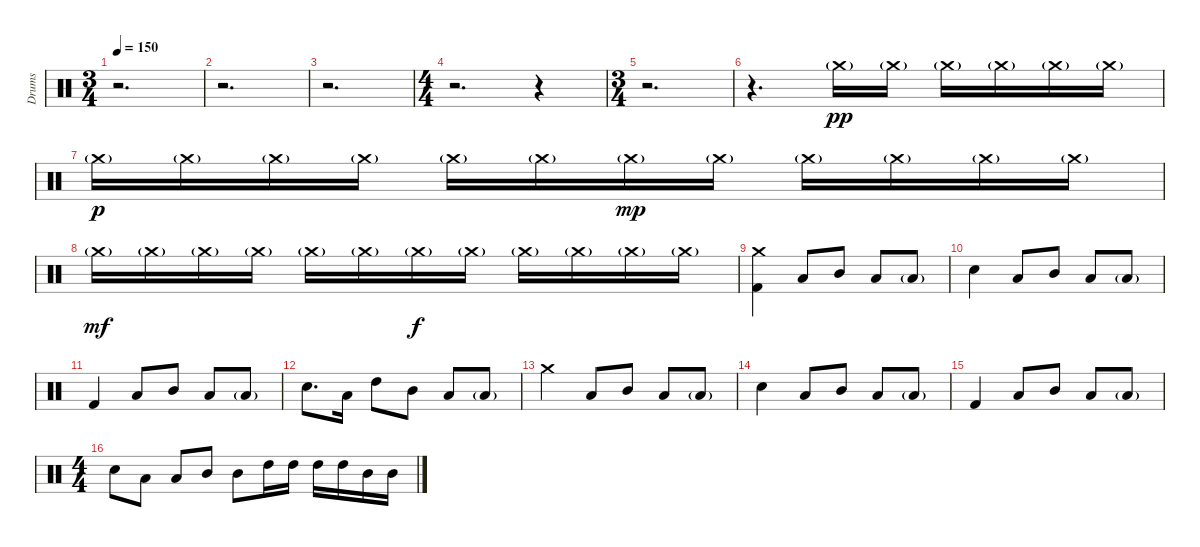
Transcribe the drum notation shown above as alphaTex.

\track ("Drums" "Drums") {instrument percussion}
\staff {score}
\articulation defaults
\ts (3 4)
\tempo 150
\clef neutral
\ks c
r.2{d dy f} |
r.2{d} |
r.2{d} |
\ts (4 4)
r.2{d} r.4 |
\ts (3 4)
r.2{d} |
r.4{d} "Crash medium (hit)"{g}.16{dy pp} "Crash medium (hit)"{g}.16 "Crash medium (hit)"{g}.16 "Crash medium (hit)"{g}.16 "Crash medium (hit)"{g}.16 "Crash medium (hit)"{g}.16 |
"Crash medium (hit)"{g}.16{dy p} "Crash medium (hit)"{g}.16 "Crash medium (hit)"{g}.16 "Crash medium (hit)"{g}.16 "Crash medium (hit)"{g}.16 "Crash medium (hit)"{g}.16 "Crash medium (hit)"{g}.16{dy mp} "Crash medium (hit)"{g}.16 "Crash medium (hit)"{g}.16 "Crash medium (hit)"{g}.16 "Crash medium (hit)"{g}.16 "Crash medium (hit)"{g}.16 |
"Crash medium (hit)"{g}.16{dy mf} "Crash medium (hit)"{g}.16 "Crash medium (hit)"{g}.16 "Crash medium (hit)"{g}.16 "Crash medium (hit)"{g}.16 "Crash medium (hit)"{g}.16 "Crash medium (hit)"{g}.16{dy f} "Crash medium (hit)"{g}.16 "Crash medium (hit)"{g}.16 "Crash medium (hit)"{g}.16 "Crash medium (hit)"{g}.16 "Crash medium (hit)"{g}.16 |
("Crash medium (hit)" "Kick (hit) 2").4 "Low Tom (hit)".8 "Mid Tom (hit)".8 "Low Tom (hit)".8 "Low Tom (hit)"{g}.8 |
"Snare (hit) 2".4 "Low Tom (hit)".8 "Mid Tom (hit)".8 "Low Tom (hit)".8 "Low Tom (hit)"{g}.8 |
"Kick (hit) 2".4 "Low Tom (hit)".8 "Mid Tom (hit)".8 "Low Tom (hit)".8 "Low Tom (hit)"{g}.8 |
"Snare (hit) 2".8{d} "Low Tom (hit)".16 "High Tom (hit)".8 "Mid Tom (hit)".8 "Low Tom (hit)".8 "Low Tom (hit)"{g}.8 |
"Crash medium (hit)".4 "Low Tom (hit)".8 "Mid Tom (hit)".8 "Low Tom (hit)".8 "Low Tom (hit)"{g}.8 |
"Snare (hit) 2".4 "Low Tom (hit)".8 "Mid Tom (hit)".8 "Low Tom (hit)".8 "Low Tom (hit)"{g}.8 |
"Kick (hit) 2".4 "Low Tom (hit)".8 "Mid Tom (hit)".8 "Low Tom (hit)".8 "Low Tom (hit)"{g}.8 |
\ts (4 4)
"Snare (hit) 2".8 "Low Tom (hit)".8 "Low Tom (hit)".8 "Mid Tom (hit)".8 "Mid Tom (hit)".8 "High Tom (hit)".16 "High Tom (hit)".16 "High Tom (hit)".16 "High Tom (hit)".16 "Mid Tom (hit)".16 "Mid Tom (hit)".16
